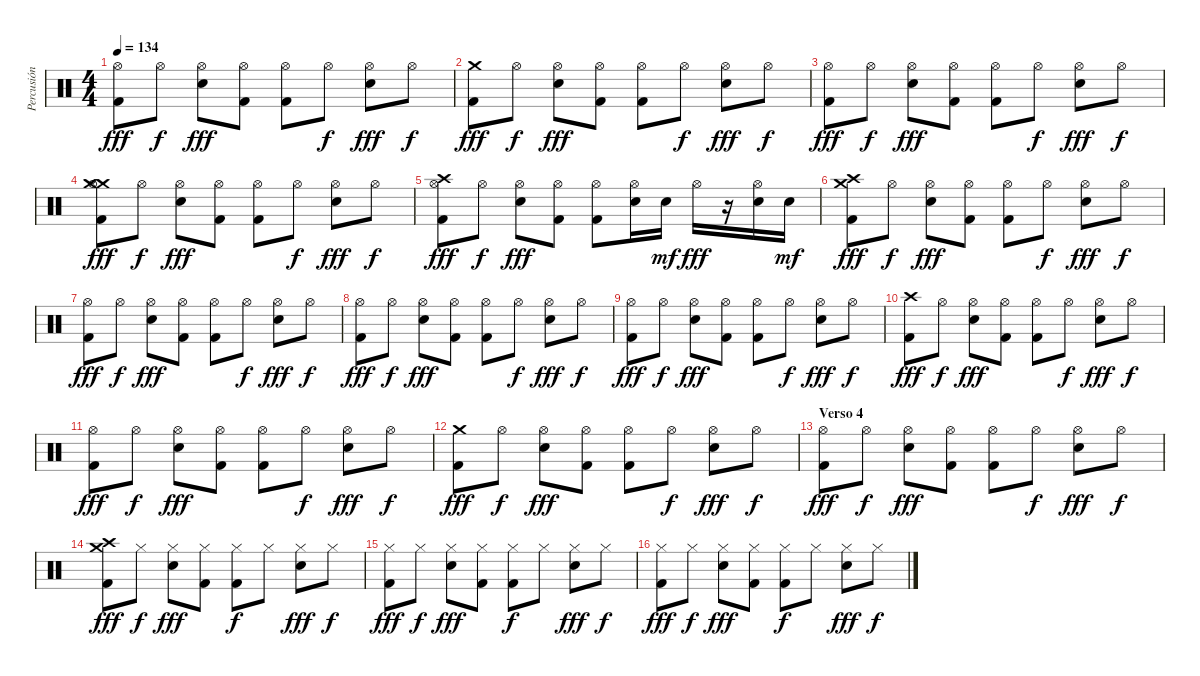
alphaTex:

\track ("Percusión" "Percusión") {instrument percussion}
\staff {score}
\articulation defaults
\ts (4 4)
\tempo 134
\clef neutral
\ks c
("Hi-Hat (open)" "Kick (hit) 2").8{dy fff} "Hi-Hat (open)".8{dy f} ("Hi-Hat (open)" "Electric Snare (hit)").8{dy fff} ("Hi-Hat (open)" "Kick (hit) 2").8 ("Hi-Hat (open)" "Kick (hit) 2").8 "Hi-Hat (open)".8{dy f} ("Hi-Hat (open)" "Electric Snare (hit)").8{dy fff} "Hi-Hat (open)".8{dy f} |
("Crash medium (hit)" "Kick (hit) 2").8{dy fff} "Hi-Hat (open)".8{dy f} ("Hi-Hat (open)" "Electric Snare (hit)").8{dy fff} ("Hi-Hat (open)" "Kick (hit) 2").8 ("Hi-Hat (open)" "Kick (hit) 2").8 "Hi-Hat (open)".8{dy f} ("Hi-Hat (open)" "Electric Snare (hit)").8{dy fff} "Hi-Hat (open)".8{dy f} |
("Hi-Hat (open)" "Kick (hit) 2").8{dy fff} "Hi-Hat (open)".8{dy f} ("Hi-Hat (open)" "Electric Snare (hit)").8{dy fff} ("Hi-Hat (open)" "Kick (hit) 2").8 ("Hi-Hat (open)" "Kick (hit) 2").8 "Hi-Hat (open)".8{dy f} ("Hi-Hat (open)" "Electric Snare (hit)").8{dy fff} "Hi-Hat (open)".8{dy f} |
("Crash medium (hit)" "Crash medium (hit)" "Hi-Hat (open)" "Kick (hit) 2").8{dy fff} "Hi-Hat (open)".8{dy f} ("Hi-Hat (open)" "Electric Snare (hit)").8{dy fff} ("Hi-Hat (open)" "Kick (hit) 2").8 ("Hi-Hat (open)" "Kick (hit) 2").8 "Hi-Hat (open)".8{dy f} ("Hi-Hat (open)" "Electric Snare (hit)").8{dy fff} "Hi-Hat (open)".8{dy f} |
("Crash high (hit)" "Hi-Hat (open)" "Kick (hit) 2").8{dy fff} "Hi-Hat (open)".8{dy f} ("Hi-Hat (open)" "Electric Snare (hit)").8{dy fff} ("Hi-Hat (open)" "Kick (hit) 2").8 ("Hi-Hat (open)" "Kick (hit) 2").8 ("Hi-Hat (open)" "Electric Snare (hit)").16 "Electric Snare (hit)".16{dy mf} "Hi-Hat (open)".16{dy fff} r.16 ("Hi-Hat (open)" "Electric Snare (hit)").16 "Electric Snare (hit)".16{dy mf} |
("Crash high (hit)" "Crash medium (hit)" "Kick (hit) 2").8{dy fff} "Hi-Hat (open)".8{dy f} ("Hi-Hat (open)" "Electric Snare (hit)").8{dy fff} ("Hi-Hat (open)" "Kick (hit) 2").8 ("Hi-Hat (open)" "Kick (hit) 2").8 "Hi-Hat (open)".8{dy f} ("Hi-Hat (open)" "Electric Snare (hit)").8{dy fff} "Hi-Hat (open)".8{dy f} |
("Hi-Hat (open)" "Kick (hit) 2").8{dy fff} "Hi-Hat (open)".8{dy f} ("Hi-Hat (open)" "Electric Snare (hit)").8{dy fff} ("Hi-Hat (open)" "Kick (hit) 2").8 ("Hi-Hat (open)" "Kick (hit) 2").8 "Hi-Hat (open)".8{dy f} ("Hi-Hat (open)" "Electric Snare (hit)").8{dy fff} "Hi-Hat (open)".8{dy f} |
("Hi-Hat (open)" "Kick (hit) 2").8{dy fff} "Hi-Hat (open)".8{dy f} ("Hi-Hat (open)" "Electric Snare (hit)").8{dy fff} ("Hi-Hat (open)" "Kick (hit) 2").8 ("Hi-Hat (open)" "Kick (hit) 2").8 "Hi-Hat (open)".8{dy f} ("Hi-Hat (open)" "Electric Snare (hit)").8{dy fff} "Hi-Hat (open)".8{dy f} |
("Hi-Hat (open)" "Kick (hit) 2").8{dy fff} "Hi-Hat (open)".8{dy f} ("Hi-Hat (open)" "Electric Snare (hit)").8{dy fff} ("Hi-Hat (open)" "Kick (hit) 2").8 ("Hi-Hat (open)" "Kick (hit) 2").8 "Hi-Hat (open)".8{dy f} ("Hi-Hat (open)" "Electric Snare (hit)").8{dy fff} "Hi-Hat (open)".8{dy f} |
("Crash high (hit)" "Kick (hit) 2").8{dy fff} "Hi-Hat (open)".8{dy f} ("Hi-Hat (open)" "Electric Snare (hit)").8{dy fff} ("Hi-Hat (open)" "Kick (hit) 2").8 ("Hi-Hat (open)" "Kick (hit) 2").8 "Hi-Hat (open)".8{dy f} ("Hi-Hat (open)" "Electric Snare (hit)").8{dy fff} "Hi-Hat (open)".8{dy f} |
("Hi-Hat (open)" "Kick (hit) 2").8{dy fff} "Hi-Hat (open)".8{dy f} ("Hi-Hat (open)" "Electric Snare (hit)").8{dy fff} ("Hi-Hat (open)" "Kick (hit) 2").8 ("Hi-Hat (open)" "Kick (hit) 2").8 "Hi-Hat (open)".8{dy f} ("Hi-Hat (open)" "Electric Snare (hit)").8{dy fff} "Hi-Hat (open)".8{dy f} |
("Crash medium (hit)" "Kick (hit) 2").8{dy fff} "Hi-Hat (open)".8{dy f} ("Hi-Hat (open)" "Electric Snare (hit)").8{dy fff} ("Hi-Hat (open)" "Kick (hit) 2").8 ("Hi-Hat (open)" "Kick (hit) 2").8 "Hi-Hat (open)".8{dy f} ("Hi-Hat (open)" "Electric Snare (hit)").8{dy fff} "Hi-Hat (open)".8{dy f} |
\section ("" "Verso 4")
("Hi-Hat (open)" "Kick (hit) 2").8{dy fff} "Hi-Hat (open)".8{dy f} ("Hi-Hat (open)" "Electric Snare (hit)").8{dy fff} ("Hi-Hat (open)" "Kick (hit) 2").8 ("Hi-Hat (open)" "Kick (hit) 2").8 "Hi-Hat (open)".8{dy f} ("Hi-Hat (open)" "Electric Snare (hit)").8{dy fff} "Hi-Hat (open)".8{dy f} |
("Crash medium (hit)" "Crash high (hit)" "Kick (hit) 2").8{dy fff} "Hi-Hat (closed)".8{dy f} ("Hi-Hat (closed)" "Electric Snare (hit)").8{dy fff} ("Hi-Hat (closed)" "Kick (hit) 2").8 ("Hi-Hat (closed)" "Kick (hit) 2").8{dy f} "Hi-Hat (closed)".8 ("Hi-Hat (closed)" "Electric Snare (hit)").8{dy fff} "Hi-Hat (closed)".8{dy f} |
("Hi-Hat (closed)" "Kick (hit) 2").8{dy fff} "Hi-Hat (closed)".8{dy f} ("Hi-Hat (closed)" "Electric Snare (hit)").8{dy fff} ("Hi-Hat (closed)" "Kick (hit) 2").8 ("Hi-Hat (closed)" "Kick (hit) 2").8{dy f} "Hi-Hat (closed)".8 ("Hi-Hat (closed)" "Electric Snare (hit)").8{dy fff} "Hi-Hat (closed)".8{dy f} |
("Hi-Hat (closed)" "Kick (hit) 2").8{dy fff} "Hi-Hat (closed)".8{dy f} ("Hi-Hat (closed)" "Electric Snare (hit)").8{dy fff} ("Hi-Hat (closed)" "Kick (hit) 2").8 ("Hi-Hat (closed)" "Kick (hit) 2").8{dy f} "Hi-Hat (closed)".8 ("Hi-Hat (closed)" "Electric Snare (hit)").8{dy fff} "Hi-Hat (closed)".8{dy f}
